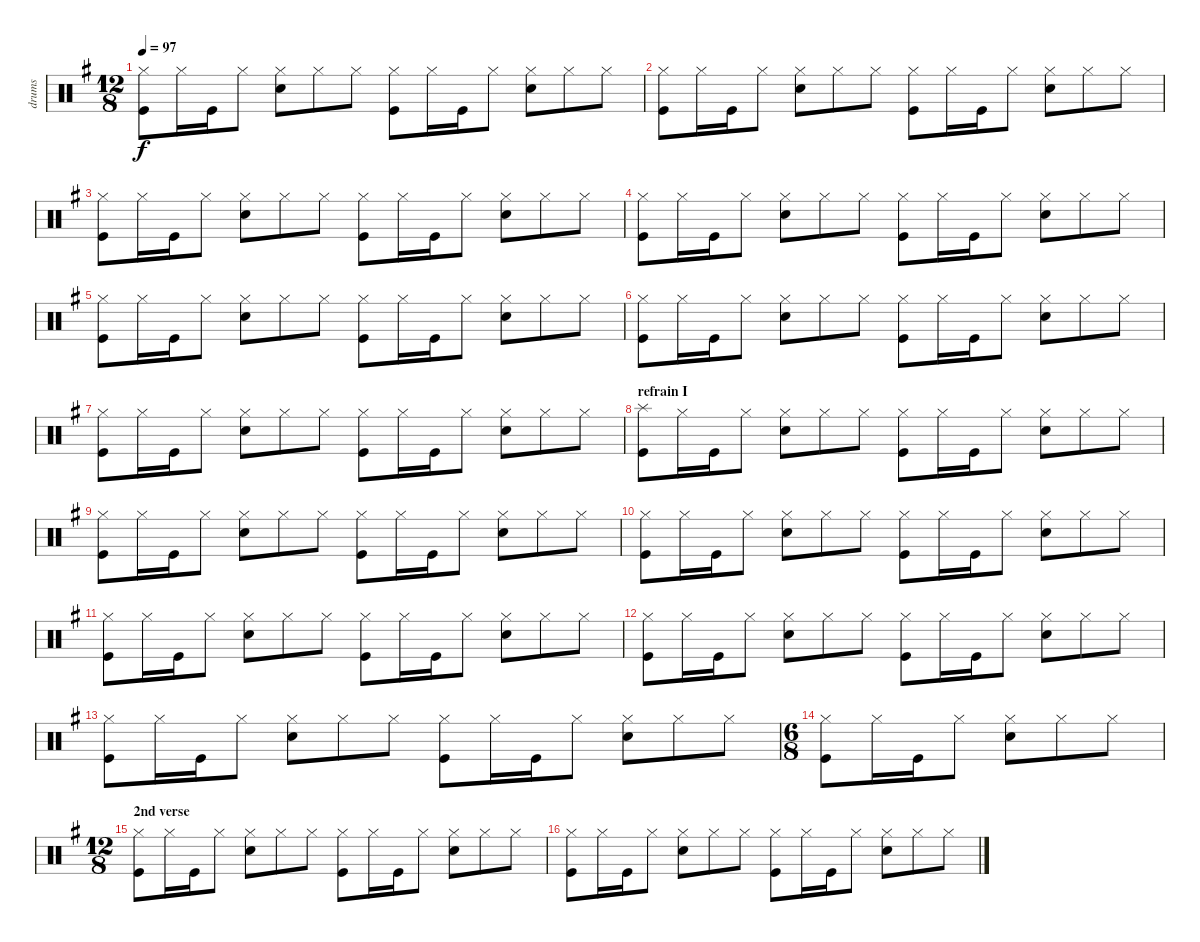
\track ("drums" "drums") {instrument percussion}
\staff {score}
\articulation defaults
\ts (12 8)
\tempo 97
\clef neutral
\ks g
("Hi-Hat (closed)" "Kick (hit)").8{dy f} "Hi-Hat (closed)".16 "Kick (hit)".16 "Hi-Hat (closed)".8 ("Hi-Hat (closed)" "Electric Snare (hit)").8 "Hi-Hat (closed)".8 "Hi-Hat (closed)".8 ("Hi-Hat (closed)" "Kick (hit)").8 "Hi-Hat (closed)".16 "Kick (hit)".16 "Hi-Hat (closed)".8 ("Hi-Hat (closed)" "Electric Snare (hit)").8 "Hi-Hat (closed)".8 "Hi-Hat (closed)".8 |
("Hi-Hat (closed)" "Kick (hit)").8 "Hi-Hat (closed)".16 "Kick (hit)".16 "Hi-Hat (closed)".8 ("Hi-Hat (closed)" "Electric Snare (hit)").8 "Hi-Hat (closed)".8 "Hi-Hat (closed)".8 ("Hi-Hat (closed)" "Kick (hit)").8 "Hi-Hat (closed)".16 "Kick (hit)".16 "Hi-Hat (closed)".8 ("Hi-Hat (closed)" "Electric Snare (hit)").8 "Hi-Hat (closed)".8 "Hi-Hat (closed)".8 |
("Hi-Hat (closed)" "Kick (hit)").8 "Hi-Hat (closed)".16 "Kick (hit)".16 "Hi-Hat (closed)".8 ("Hi-Hat (closed)" "Electric Snare (hit)").8 "Hi-Hat (closed)".8 "Hi-Hat (closed)".8 ("Hi-Hat (closed)" "Kick (hit)").8 "Hi-Hat (closed)".16 "Kick (hit)".16 "Hi-Hat (closed)".8 ("Hi-Hat (closed)" "Electric Snare (hit)").8 "Hi-Hat (closed)".8 "Hi-Hat (closed)".8 |
("Hi-Hat (closed)" "Kick (hit)").8 "Hi-Hat (closed)".16 "Kick (hit)".16 "Hi-Hat (closed)".8 ("Hi-Hat (closed)" "Electric Snare (hit)").8 "Hi-Hat (closed)".8 "Hi-Hat (closed)".8 ("Hi-Hat (closed)" "Kick (hit)").8 "Hi-Hat (closed)".16 "Kick (hit)".16 "Hi-Hat (closed)".8 ("Hi-Hat (closed)" "Electric Snare (hit)").8 "Hi-Hat (closed)".8 "Hi-Hat (closed)".8 |
("Hi-Hat (closed)" "Kick (hit)").8 "Hi-Hat (closed)".16 "Kick (hit)".16 "Hi-Hat (closed)".8 ("Hi-Hat (closed)" "Electric Snare (hit)").8 "Hi-Hat (closed)".8 "Hi-Hat (closed)".8 ("Hi-Hat (closed)" "Kick (hit)").8 "Hi-Hat (closed)".16 "Kick (hit)".16 "Hi-Hat (closed)".8 ("Hi-Hat (closed)" "Electric Snare (hit)").8 "Hi-Hat (closed)".8 "Hi-Hat (closed)".8 |
("Hi-Hat (closed)" "Kick (hit)").8 "Hi-Hat (closed)".16 "Kick (hit)".16 "Hi-Hat (closed)".8 ("Hi-Hat (closed)" "Electric Snare (hit)").8 "Hi-Hat (closed)".8 "Hi-Hat (closed)".8 ("Hi-Hat (closed)" "Kick (hit)").8 "Hi-Hat (closed)".16 "Kick (hit)".16 "Hi-Hat (closed)".8 ("Hi-Hat (closed)" "Electric Snare (hit)").8 "Hi-Hat (closed)".8 "Hi-Hat (closed)".8 |
("Hi-Hat (closed)" "Kick (hit)").8 "Hi-Hat (closed)".16 "Kick (hit)".16 "Hi-Hat (closed)".8 ("Hi-Hat (closed)" "Electric Snare (hit)").8 "Hi-Hat (closed)".8 "Hi-Hat (closed)".8 ("Hi-Hat (closed)" "Kick (hit)").8 "Hi-Hat (closed)".16 "Kick (hit)".16 "Hi-Hat (closed)".8 ("Hi-Hat (closed)" "Electric Snare (hit)").8 "Hi-Hat (closed)".8 "Hi-Hat (closed)".8 |
\section ("" "refrain I")
("Splash (hit)" "Kick (hit)").8 "Hi-Hat (closed)".16 "Kick (hit)".16 "Hi-Hat (closed)".8 ("Hi-Hat (closed)" "Electric Snare (hit)").8 "Hi-Hat (closed)".8 "Hi-Hat (closed)".8 ("Hi-Hat (closed)" "Kick (hit)").8 "Hi-Hat (closed)".16 "Kick (hit)".16 "Hi-Hat (closed)".8 ("Hi-Hat (closed)" "Electric Snare (hit)").8 "Hi-Hat (closed)".8 "Hi-Hat (closed)".8 |
("Hi-Hat (closed)" "Kick (hit)").8 "Hi-Hat (closed)".16 "Kick (hit)".16 "Hi-Hat (closed)".8 ("Hi-Hat (closed)" "Electric Snare (hit)").8 "Hi-Hat (closed)".8 "Hi-Hat (closed)".8 ("Hi-Hat (closed)" "Kick (hit)").8 "Hi-Hat (closed)".16 "Kick (hit)".16 "Hi-Hat (closed)".8 ("Hi-Hat (closed)" "Electric Snare (hit)").8 "Hi-Hat (closed)".8 "Hi-Hat (closed)".8 |
("Hi-Hat (closed)" "Kick (hit)").8 "Hi-Hat (closed)".16 "Kick (hit)".16 "Hi-Hat (closed)".8 ("Hi-Hat (closed)" "Electric Snare (hit)").8 "Hi-Hat (closed)".8 "Hi-Hat (closed)".8 ("Hi-Hat (closed)" "Kick (hit)").8 "Hi-Hat (closed)".16 "Kick (hit)".16 "Hi-Hat (closed)".8 ("Hi-Hat (closed)" "Electric Snare (hit)").8 "Hi-Hat (closed)".8 "Hi-Hat (closed)".8 |
("Hi-Hat (closed)" "Kick (hit)").8 "Hi-Hat (closed)".16 "Kick (hit)".16 "Hi-Hat (closed)".8 ("Hi-Hat (closed)" "Electric Snare (hit)").8 "Hi-Hat (closed)".8 "Hi-Hat (closed)".8 ("Hi-Hat (closed)" "Kick (hit)").8 "Hi-Hat (closed)".16 "Kick (hit)".16 "Hi-Hat (closed)".8 ("Hi-Hat (closed)" "Electric Snare (hit)").8 "Hi-Hat (closed)".8 "Hi-Hat (closed)".8 |
("Hi-Hat (closed)" "Kick (hit)").8 "Hi-Hat (closed)".16 "Kick (hit)".16 "Hi-Hat (closed)".8 ("Hi-Hat (closed)" "Electric Snare (hit)").8 "Hi-Hat (closed)".8 "Hi-Hat (closed)".8 ("Hi-Hat (closed)" "Kick (hit)").8 "Hi-Hat (closed)".16 "Kick (hit)".16 "Hi-Hat (closed)".8 ("Hi-Hat (closed)" "Electric Snare (hit)").8 "Hi-Hat (closed)".8 "Hi-Hat (closed)".8 |
("Hi-Hat (closed)" "Kick (hit)").8 "Hi-Hat (closed)".16 "Kick (hit)".16 "Hi-Hat (closed)".8 ("Hi-Hat (closed)" "Electric Snare (hit)").8 "Hi-Hat (closed)".8 "Hi-Hat (closed)".8 ("Hi-Hat (closed)" "Kick (hit)").8 "Hi-Hat (closed)".16 "Kick (hit)".16 "Hi-Hat (closed)".8 ("Hi-Hat (closed)" "Electric Snare (hit)").8 "Hi-Hat (closed)".8 "Hi-Hat (closed)".8 |
\ts (6 8)
("Hi-Hat (closed)" "Kick (hit)").8 "Hi-Hat (closed)".16 "Kick (hit)".16 "Hi-Hat (closed)".8 ("Hi-Hat (closed)" "Electric Snare (hit)").8 "Hi-Hat (closed)".8 "Hi-Hat (closed)".8 |
\ts (12 8)
\section ("" "2nd verse")
("Hi-Hat (closed)" "Kick (hit)").8 "Hi-Hat (closed)".16 "Kick (hit)".16 "Hi-Hat (closed)".8 ("Hi-Hat (closed)" "Electric Snare (hit)").8 "Hi-Hat (closed)".8 "Hi-Hat (closed)".8 ("Hi-Hat (closed)" "Kick (hit)").8 "Hi-Hat (closed)".16 "Kick (hit)".16 "Hi-Hat (closed)".8 ("Hi-Hat (closed)" "Electric Snare (hit)").8 "Hi-Hat (closed)".8 "Hi-Hat (closed)".8 |
("Hi-Hat (closed)" "Kick (hit)").8 "Hi-Hat (closed)".16 "Kick (hit)".16 "Hi-Hat (closed)".8 ("Hi-Hat (closed)" "Electric Snare (hit)").8 "Hi-Hat (closed)".8 "Hi-Hat (closed)".8 ("Hi-Hat (closed)" "Kick (hit)").8 "Hi-Hat (closed)".16 "Kick (hit)".16 "Hi-Hat (closed)".8 ("Hi-Hat (closed)" "Electric Snare (hit)").8 "Hi-Hat (closed)".8 "Hi-Hat (closed)".8
